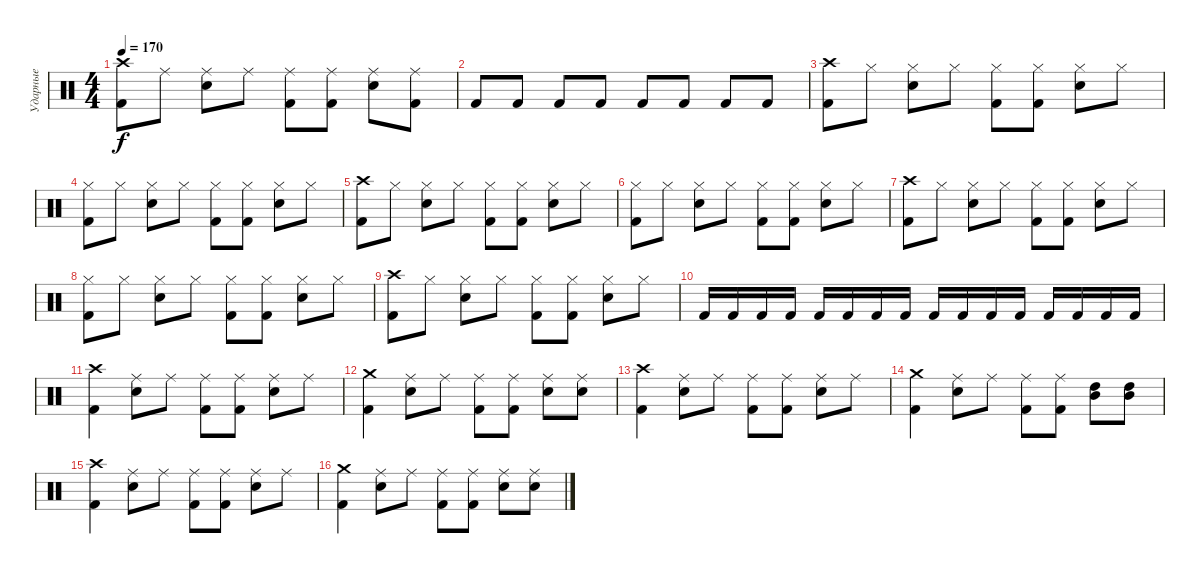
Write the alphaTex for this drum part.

\track ("Ударные" "Ударные") {instrument percussion}
\staff {score}
\articulation defaults
\ts (4 4)
\tempo 170
\clef neutral
\ks c
("Crash high (hit)" "Kick (hit) 2").8{dy f} "Ride (middle)".8 ("Ride (middle)" "Electric Snare (hit)").8 "Ride (middle)".8 ("Ride (middle)" "Kick (hit) 2").8 ("Ride (middle)" "Kick (hit) 2").8 ("Ride (middle)" "Electric Snare (hit)").8 ("Ride (middle)" "Kick (hit) 2").8 |
"Kick (hit) 2".8 "Kick (hit) 2".8 "Kick (hit) 2".8 "Kick (hit) 2".8 "Kick (hit) 2".8 "Kick (hit) 2".8 "Kick (hit) 2".8 "Kick (hit) 2".8 |
("Crash high (hit)" "Kick (hit) 2").8 "Hi-Hat (closed)".8 ("Hi-Hat (closed)" "Electric Snare (hit)").8 "Hi-Hat (closed)".8 ("Hi-Hat (closed)" "Kick (hit) 2").8 ("Hi-Hat (closed)" "Kick (hit) 2").8 ("Hi-Hat (closed)" "Electric Snare (hit)").8 "Hi-Hat (closed)".8 |
("Hi-Hat (closed)" "Kick (hit) 2").8 "Hi-Hat (closed)".8 ("Hi-Hat (closed)" "Electric Snare (hit)").8 "Hi-Hat (closed)".8 ("Hi-Hat (closed)" "Kick (hit) 2").8 ("Hi-Hat (closed)" "Kick (hit) 2").8 ("Hi-Hat (closed)" "Electric Snare (hit)").8 "Hi-Hat (closed)".8 |
("Crash high (hit)" "Kick (hit) 2").8 "Hi-Hat (closed)".8 ("Hi-Hat (closed)" "Electric Snare (hit)").8 "Hi-Hat (closed)".8 ("Hi-Hat (closed)" "Kick (hit) 2").8 ("Hi-Hat (closed)" "Kick (hit) 2").8 ("Hi-Hat (closed)" "Electric Snare (hit)").8 "Hi-Hat (closed)".8 |
("Hi-Hat (closed)" "Kick (hit) 2").8 "Hi-Hat (closed)".8 ("Hi-Hat (closed)" "Electric Snare (hit)").8 "Hi-Hat (closed)".8 ("Hi-Hat (closed)" "Kick (hit) 2").8 ("Hi-Hat (closed)" "Kick (hit) 2").8 ("Hi-Hat (closed)" "Electric Snare (hit)").8 "Hi-Hat (closed)".8 |
("Crash high (hit)" "Kick (hit) 2").8 "Hi-Hat (closed)".8 ("Hi-Hat (closed)" "Electric Snare (hit)").8 "Hi-Hat (closed)".8 ("Hi-Hat (closed)" "Kick (hit) 2").8 ("Hi-Hat (closed)" "Kick (hit) 2").8 ("Hi-Hat (closed)" "Electric Snare (hit)").8 "Hi-Hat (closed)".8 |
("Hi-Hat (closed)" "Kick (hit) 2").8 "Hi-Hat (closed)".8 ("Hi-Hat (closed)" "Electric Snare (hit)").8 "Hi-Hat (closed)".8 ("Hi-Hat (closed)" "Kick (hit) 2").8 ("Hi-Hat (closed)" "Kick (hit) 2").8 ("Hi-Hat (closed)" "Electric Snare (hit)").8 "Hi-Hat (closed)".8 |
("Crash high (hit)" "Kick (hit) 2").8 "Hi-Hat (closed)".8 ("Hi-Hat (closed)" "Electric Snare (hit)").8 "Hi-Hat (closed)".8 ("Hi-Hat (closed)" "Kick (hit) 2").8 ("Hi-Hat (closed)" "Kick (hit) 2").8 ("Hi-Hat (closed)" "Electric Snare (hit)").8 "Hi-Hat (closed)".8 |
"Kick (hit) 2".16 "Kick (hit) 2".16 "Kick (hit) 2".16 "Kick (hit) 2".16 "Kick (hit) 2".16 "Kick (hit) 2".16 "Kick (hit) 2".16 "Kick (hit) 2".16 "Kick (hit) 2".16 "Kick (hit) 2".16 "Kick (hit) 2".16 "Kick (hit) 2".16 "Kick (hit) 2".16 "Kick (hit) 2".16 "Kick (hit) 2".16 "Kick (hit) 2".16 |
("Crash high (hit)" "Kick (hit) 2").4 ("Ride (middle)" "Electric Snare (hit)").8 "Ride (middle)".8 ("Ride (middle)" "Kick (hit) 2").8 ("Ride (middle)" "Kick (hit) 2").8 ("Ride (middle)" "Electric Snare (hit)").8 "Ride (middle)".8 |
("Crash medium (hit)" "Kick (hit) 2").4 ("Ride (middle)" "Electric Snare (hit)").8 "Ride (middle)".8 ("Ride (middle)" "Kick (hit) 2").8 ("Ride (middle)" "Kick (hit) 2").8 ("Ride (middle)" "Electric Snare (hit)").8 ("Ride (middle)" "Electric Snare (hit)").8 |
("Crash high (hit)" "Kick (hit) 2").4 ("Ride (middle)" "Electric Snare (hit)").8 "Ride (middle)".8 ("Ride (middle)" "Kick (hit) 2").8 ("Ride (middle)" "Kick (hit) 2").8 ("Ride (middle)" "Electric Snare (hit)").8 "Ride (middle)".8 |
("Crash medium (hit)" "Kick (hit) 2").4 ("Ride (middle)" "Electric Snare (hit)").8 "Ride (middle)".8 ("Ride (middle)" "Kick (hit) 2").8 ("Ride (middle)" "Kick (hit) 2").8 ("Mid Tom (hit)" "High Tom (hit)").8 ("Mid Tom (hit)" "High Tom (hit)").8 |
("Crash high (hit)" "Kick (hit) 2").4 ("Ride (middle)" "Electric Snare (hit)").8 "Ride (middle)".8 ("Ride (middle)" "Kick (hit) 2").8 ("Ride (middle)" "Kick (hit) 2").8 ("Ride (middle)" "Electric Snare (hit)").8 "Ride (middle)".8 |
("Crash medium (hit)" "Kick (hit) 2").4 ("Ride (middle)" "Electric Snare (hit)").8 "Ride (middle)".8 ("Ride (middle)" "Kick (hit) 2").8 ("Ride (middle)" "Kick (hit) 2").8 ("Ride (middle)" "Electric Snare (hit)").8 ("Ride (middle)" "Electric Snare (hit)").8
